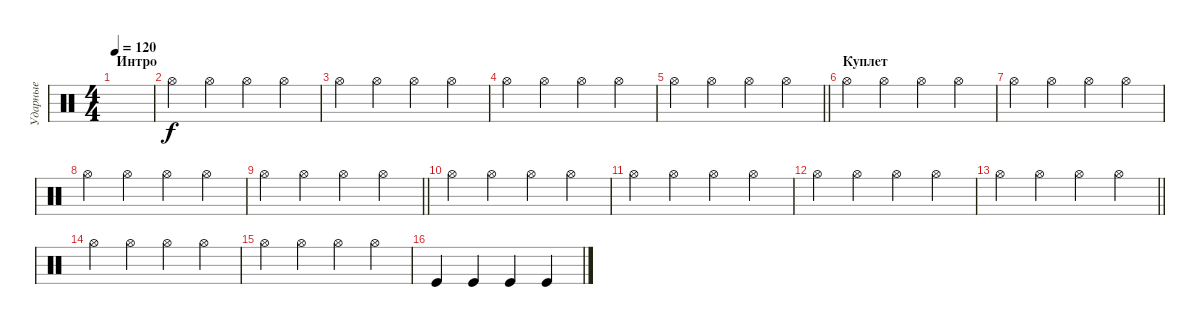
\track ("Ударные" "Ударные") {instrument percussion}
\staff {score}
\articulation defaults
\ts (4 4)
\section ("" "Интро")
\tempo 120
\clef neutral
\ks c
|
"Hi-Hat (open)".4 "Hi-Hat (open)".4 "Hi-Hat (open)".4 "Hi-Hat (open)".4 |
"Hi-Hat (open)".4 "Hi-Hat (open)".4 "Hi-Hat (open)".4 "Hi-Hat (open)".4 |
"Hi-Hat (open)".4 "Hi-Hat (open)".4 "Hi-Hat (open)".4 "Hi-Hat (open)".4 |
\barLineRight lightlight "Hi-Hat (open)".4 "Hi-Hat (open)".4 "Hi-Hat (open)".4 "Hi-Hat (open)".4
|
\section ("" "Куплет")
"Hi-Hat (open)".4 "Hi-Hat (open)".4 "Hi-Hat (open)".4 "Hi-Hat (open)".4 |
"Hi-Hat (open)".4 "Hi-Hat (open)".4 "Hi-Hat (open)".4 "Hi-Hat (open)".4 |
"Hi-Hat (open)".4 "Hi-Hat (open)".4 "Hi-Hat (open)".4 "Hi-Hat (open)".4 |
\barLineRight lightlight "Hi-Hat (open)".4 "Hi-Hat (open)".4 "Hi-Hat (open)".4 "Hi-Hat (open)".4
|
"Hi-Hat (open)".4 "Hi-Hat (open)".4 "Hi-Hat (open)".4 "Hi-Hat (open)".4 |
"Hi-Hat (open)".4 "Hi-Hat (open)".4 "Hi-Hat (open)".4 "Hi-Hat (open)".4 |
"Hi-Hat (open)".4 "Hi-Hat (open)".4 "Hi-Hat (open)".4 "Hi-Hat (open)".4 |
\barLineRight lightlight "Hi-Hat (open)".4 "Hi-Hat (open)".4 "Hi-Hat (open)".4 "Hi-Hat (open)".4
|
"Hi-Hat (open)".4 "Hi-Hat (open)".4 "Hi-Hat (open)".4 "Hi-Hat (open)".4 |
"Hi-Hat (open)".4 "Hi-Hat (open)".4 "Hi-Hat (open)".4 "Hi-Hat (open)".4 |
"Kick (hit)".4 "Kick (hit)".4 "Kick (hit)".4 "Kick (hit)".4
